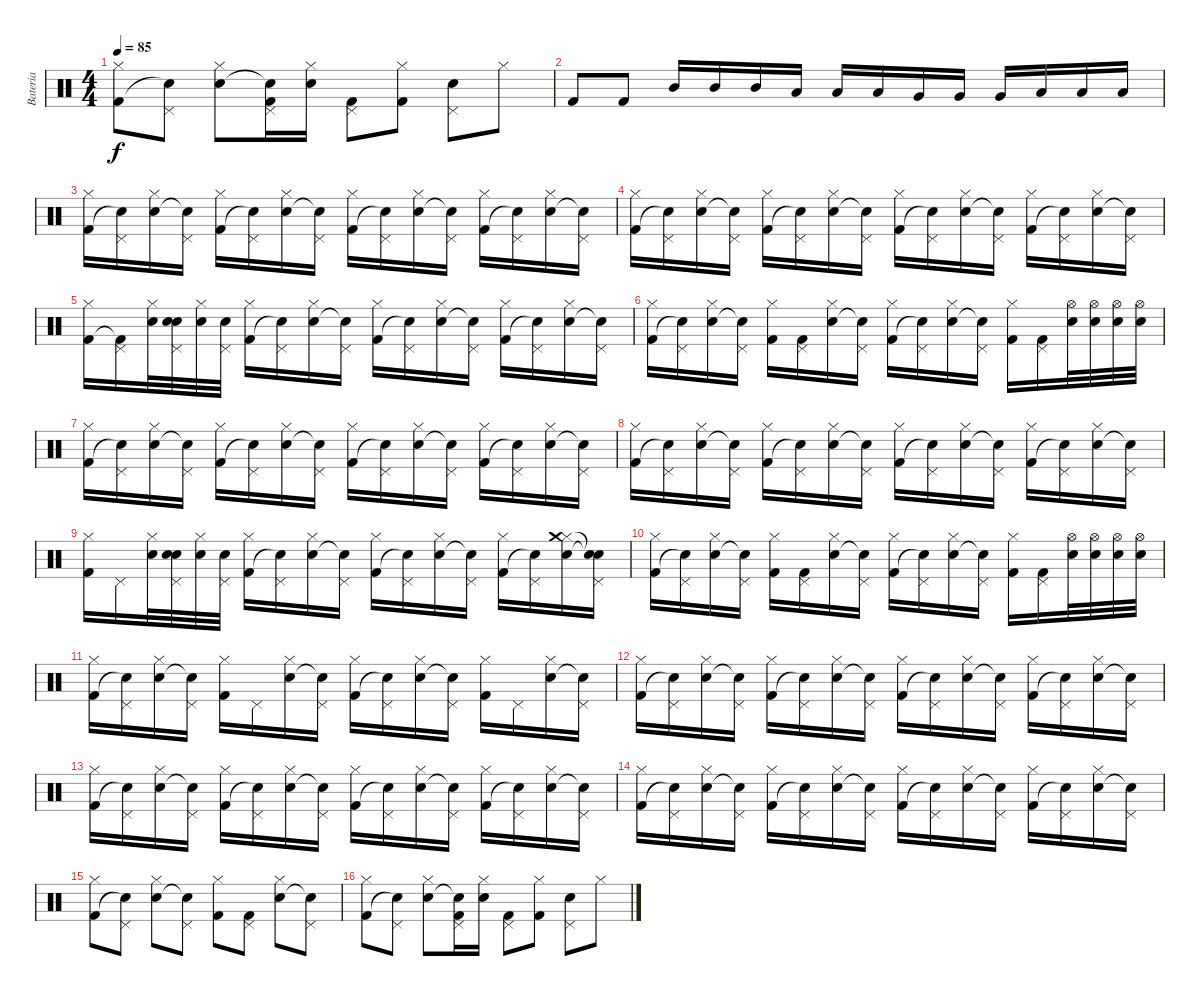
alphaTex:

\track ("Bateria" "Bateria") {instrument percussion}
\staff {score}
\articulation defaults
\ts (4 4)
\tempo 85
\clef neutral
\ks c
("Hi-Hat (closed)" "Kick (hit) 2").8{dy f} ("Pedal Hi-Hat (hit)" "Snare (hit)"{t}).8 ("Hi-Hat (closed)" "Electric Snare (hit)").8 ("Pedal Hi-Hat (hit)" "Snare (hit)"{t} "Kick (hit) 2").16 ("Hi-Hat (closed)" "Electric Snare (hit)").16 ("Pedal Hi-Hat (hit)" "Kick (hit) 2").8 ("Hi-Hat (closed)" "Kick (hit) 2").8 ("Pedal Hi-Hat (hit)" "Electric Snare (hit)").8 "Hi-Hat (closed)".8 |
"Kick (hit) 2".8 "Kick (hit) 2".8 "Mid Tom (hit)".16 "Mid Tom (hit)".16 "Mid Tom (hit)".16 "Low Tom (hit)".16 "Low Tom (hit)".16 "Low Tom (hit)".16 "Very Low Tom (hit)".16 "Very Low Tom (hit)".16 "Very Low Tom (hit)".16 "Low Floor Tom (hit)".16 "Low Floor Tom (hit)".16 "Low Floor Tom (hit)".16 |
("Hi-Hat (closed)" "Kick (hit) 2").16 ("Pedal Hi-Hat (hit)" "Snare (hit)"{t}).16 ("Hi-Hat (closed)" "Electric Snare (hit)").16 ("Pedal Hi-Hat (hit)" "Snare (hit)"{t}).16 ("Hi-Hat (closed)" "Kick (hit) 2").16 ("Pedal Hi-Hat (hit)" "Snare (hit)"{t}).16 ("Hi-Hat (closed)" "Electric Snare (hit)").16 ("Pedal Hi-Hat (hit)" "Snare (hit)"{t}).16 ("Hi-Hat (closed)" "Kick (hit) 2").16 ("Pedal Hi-Hat (hit)" "Snare (hit)"{t}).16 ("Hi-Hat (closed)" "Electric Snare (hit)").16 ("Pedal Hi-Hat (hit)" "Snare (hit)"{t}).16 ("Hi-Hat (closed)" "Kick (hit) 2").16 ("Pedal Hi-Hat (hit)" "Snare (hit)"{t}).16 ("Hi-Hat (closed)" "Electric Snare (hit)").16 ("Pedal Hi-Hat (hit)" "Snare (hit)"{t}).16 |
("Hi-Hat (closed)" "Kick (hit) 2").16 ("Pedal Hi-Hat (hit)" "Snare (hit)"{t}).16 ("Hi-Hat (closed)" "Electric Snare (hit)").16 ("Pedal Hi-Hat (hit)" "Snare (hit)"{t}).16 ("Hi-Hat (closed)" "Kick (hit) 2").16 ("Pedal Hi-Hat (hit)" "Snare (hit)"{t}).16 ("Hi-Hat (closed)" "Electric Snare (hit)").16 ("Pedal Hi-Hat (hit)" "Snare (hit)"{t}).16 ("Hi-Hat (closed)" "Kick (hit) 2").16 ("Pedal Hi-Hat (hit)" "Snare (hit)"{t}).16 ("Hi-Hat (closed)" "Electric Snare (hit)").16 ("Pedal Hi-Hat (hit)" "Snare (hit)"{t}).16 ("Hi-Hat (closed)" "Kick (hit) 2").16 ("Pedal Hi-Hat (hit)" "Snare (hit)"{t}).16 ("Hi-Hat (closed)" "Electric Snare (hit)").16 ("Pedal Hi-Hat (hit)" "Snare (hit)"{t}).16 |
("Hi-Hat (closed)" "Kick (hit) 2").16 ("Pedal Hi-Hat (hit)" "Kick (hit) 2"{t}).16 ("Hi-Hat (closed)" "Electric Snare (hit)").32 ("Pedal Hi-Hat (hit)" "Electric Snare (hit)" "Snare (hit)").32 ("Hi-Hat (closed)" "Electric Snare (hit)").32 ("Pedal Hi-Hat (hit)" "Electric Snare (hit)").32 ("Hi-Hat (closed)" "Kick (hit) 2").16 ("Pedal Hi-Hat (hit)" "Snare (hit)"{t}).16 ("Hi-Hat (closed)" "Electric Snare (hit)").16 ("Pedal Hi-Hat (hit)" "Snare (hit)"{t}).16 ("Hi-Hat (closed)" "Kick (hit) 2").16 ("Pedal Hi-Hat (hit)" "Snare (hit)"{t}).16 ("Hi-Hat (closed)" "Electric Snare (hit)").16 ("Pedal Hi-Hat (hit)" "Snare (hit)"{t}).16 ("Hi-Hat (closed)" "Kick (hit) 2").16 ("Pedal Hi-Hat (hit)" "Snare (hit)"{t}).16 ("Hi-Hat (closed)" "Electric Snare (hit)").16 ("Pedal Hi-Hat (hit)" "Snare (hit)"{t}).16 |
("Hi-Hat (closed)" "Kick (hit) 2").16 ("Pedal Hi-Hat (hit)" "Snare (hit)"{t}).16 ("Hi-Hat (closed)" "Electric Snare (hit)").16 ("Pedal Hi-Hat (hit)" "Snare (hit)"{t}).16 ("Hi-Hat (closed)" "Kick (hit) 2").16 ("Pedal Hi-Hat (hit)" "Kick (hit) 2").16 ("Hi-Hat (closed)" "Electric Snare (hit)").16 ("Pedal Hi-Hat (hit)" "Snare (hit)"{t}).16 ("Hi-Hat (closed)" "Kick (hit) 2").16 ("Pedal Hi-Hat (hit)" "Snare (hit)"{t}).16 ("Hi-Hat (closed)" "Electric Snare (hit)").16 ("Pedal Hi-Hat (hit)" "Snare (hit)"{t}).16 ("Hi-Hat (closed)" "Kick (hit) 2").16 ("Pedal Hi-Hat (hit)" "Kick (hit) 2").16 ("Hi-Hat (open)" "Electric Snare (hit)").32 ("Hi-Hat (open)" "Electric Snare (hit)").32 ("Hi-Hat (open)" "Electric Snare (hit)").32 ("Hi-Hat (open)" "Electric Snare (hit)").32 |
("Hi-Hat (closed)" "Kick (hit) 2").16 ("Pedal Hi-Hat (hit)" "Snare (hit)"{t}).16 ("Hi-Hat (closed)" "Electric Snare (hit)").16 ("Pedal Hi-Hat (hit)" "Snare (hit)"{t}).16 ("Hi-Hat (closed)" "Kick (hit) 2").16 ("Pedal Hi-Hat (hit)" "Snare (hit)"{t}).16 ("Hi-Hat (closed)" "Electric Snare (hit)").16 ("Pedal Hi-Hat (hit)" "Snare (hit)"{t}).16 ("Hi-Hat (closed)" "Kick (hit) 2").16 ("Pedal Hi-Hat (hit)" "Snare (hit)"{t}).16 ("Hi-Hat (closed)" "Electric Snare (hit)").16 ("Pedal Hi-Hat (hit)" "Snare (hit)"{t}).16 ("Hi-Hat (closed)" "Kick (hit) 2").16 ("Pedal Hi-Hat (hit)" "Snare (hit)"{t}).16 ("Hi-Hat (closed)" "Electric Snare (hit)").16 ("Pedal Hi-Hat (hit)" "Snare (hit)"{t}).16 |
("Hi-Hat (closed)" "Kick (hit) 2").16 ("Pedal Hi-Hat (hit)" "Snare (hit)"{t}).16 ("Hi-Hat (closed)" "Electric Snare (hit)").16 ("Pedal Hi-Hat (hit)" "Snare (hit)"{t}).16 ("Hi-Hat (closed)" "Kick (hit) 2").16 ("Pedal Hi-Hat (hit)" "Snare (hit)"{t}).16 ("Hi-Hat (closed)" "Electric Snare (hit)").16 ("Pedal Hi-Hat (hit)" "Snare (hit)"{t}).16 ("Hi-Hat (closed)" "Kick (hit) 2").16 ("Pedal Hi-Hat (hit)" "Snare (hit)"{t}).16 ("Hi-Hat (closed)" "Electric Snare (hit)").16 ("Pedal Hi-Hat (hit)" "Snare (hit)"{t}).16 ("Hi-Hat (closed)" "Kick (hit) 2").16 ("Pedal Hi-Hat (hit)" "Snare (hit)"{t}).16 ("Hi-Hat (closed)" "Electric Snare (hit)").16 ("Pedal Hi-Hat (hit)" "Snare (hit)"{t}).16 |
("Hi-Hat (closed)" "Kick (hit) 2").16 "Pedal Hi-Hat (hit)".16 ("Hi-Hat (closed)" "Electric Snare (hit)").32 ("Pedal Hi-Hat (hit)" "Electric Snare (hit)" "Snare (hit)").32 ("Hi-Hat (closed)" "Electric Snare (hit)").32 ("Pedal Hi-Hat (hit)" "Electric Snare (hit)").32 ("Hi-Hat (closed)" "Kick (hit) 2").16 ("Pedal Hi-Hat (hit)" "Snare (hit)"{t}).16 ("Hi-Hat (closed)" "Electric Snare (hit)").16 ("Pedal Hi-Hat (hit)" "Snare (hit)"{t}).16 ("Hi-Hat (closed)" "Kick (hit) 2").16 ("Pedal Hi-Hat (hit)" "Snare (hit)"{t}).16 ("Hi-Hat (closed)" "Electric Snare (hit)").16 ("Pedal Hi-Hat (hit)" "Snare (hit)"{t}).16 ("Hi-Hat (closed)" "Kick (hit) 2").16 ("Pedal Hi-Hat (hit)" "Snare (hit)"{t}).16 ("Hi-Hat (closed)" "Crash medium (hit)" "Electric Snare (hit)").16 ("Pedal Hi-Hat (hit)" "Snare (hit)"{t} "Snare (hit)"{t}).16 |
("Hi-Hat (closed)" "Kick (hit) 2").16 ("Pedal Hi-Hat (hit)" "Snare (hit)"{t}).16 ("Hi-Hat (closed)" "Electric Snare (hit)").16 ("Pedal Hi-Hat (hit)" "Snare (hit)"{t}).16 ("Hi-Hat (closed)" "Kick (hit) 2").16 ("Pedal Hi-Hat (hit)" "Kick (hit) 2").16 ("Hi-Hat (closed)" "Electric Snare (hit)").16 ("Pedal Hi-Hat (hit)" "Snare (hit)"{t}).16 ("Hi-Hat (closed)" "Kick (hit) 2").16 ("Pedal Hi-Hat (hit)" "Snare (hit)"{t}).16 ("Hi-Hat (closed)" "Electric Snare (hit)").16 ("Pedal Hi-Hat (hit)" "Snare (hit)"{t}).16 ("Hi-Hat (closed)" "Kick (hit) 2").16 ("Pedal Hi-Hat (hit)" "Kick (hit) 2").16 ("Hi-Hat (open)" "Electric Snare (hit)").32 ("Hi-Hat (open)" "Electric Snare (hit)").32 ("Hi-Hat (open)" "Electric Snare (hit)").32 ("Hi-Hat (open)" "Electric Snare (hit)").32 |
("Hi-Hat (closed)" "Kick (hit) 2").16 ("Pedal Hi-Hat (hit)" "Snare (hit)"{t}).16 ("Hi-Hat (closed)" "Electric Snare (hit)").16 ("Pedal Hi-Hat (hit)" "Snare (hit)"{t}).16 ("Hi-Hat (closed)" "Kick (hit) 2").16 "Pedal Hi-Hat (hit)".16 ("Hi-Hat (closed)" "Electric Snare (hit)").16 ("Pedal Hi-Hat (hit)" "Snare (hit)"{t}).16 ("Hi-Hat (closed)" "Kick (hit) 2").16 ("Pedal Hi-Hat (hit)" "Snare (hit)"{t}).16 ("Hi-Hat (closed)" "Electric Snare (hit)").16 ("Pedal Hi-Hat (hit)" "Snare (hit)"{t}).16 ("Hi-Hat (closed)" "Kick (hit) 2").16 "Pedal Hi-Hat (hit)".16 ("Hi-Hat (closed)" "Electric Snare (hit)").16 ("Pedal Hi-Hat (hit)" "Snare (hit)"{t}).16 |
("Hi-Hat (closed)" "Kick (hit) 2").16 ("Pedal Hi-Hat (hit)" "Snare (hit)"{t}).16 ("Hi-Hat (closed)" "Electric Snare (hit)").16 ("Pedal Hi-Hat (hit)" "Snare (hit)"{t}).16 ("Hi-Hat (closed)" "Kick (hit) 2").16 ("Pedal Hi-Hat (hit)" "Snare (hit)"{t}).16 ("Hi-Hat (closed)" "Electric Snare (hit)").16 ("Pedal Hi-Hat (hit)" "Snare (hit)"{t}).16 ("Hi-Hat (closed)" "Kick (hit) 2").16 ("Pedal Hi-Hat (hit)" "Snare (hit)"{t}).16 ("Hi-Hat (closed)" "Electric Snare (hit)").16 ("Pedal Hi-Hat (hit)" "Snare (hit)"{t}).16 ("Hi-Hat (closed)" "Kick (hit) 2").16 ("Pedal Hi-Hat (hit)" "Snare (hit)"{t}).16 ("Hi-Hat (closed)" "Electric Snare (hit)").16 ("Pedal Hi-Hat (hit)" "Snare (hit)"{t}).16 |
("Hi-Hat (closed)" "Kick (hit) 2").16 ("Pedal Hi-Hat (hit)" "Snare (hit)"{t}).16 ("Hi-Hat (closed)" "Electric Snare (hit)").16 ("Pedal Hi-Hat (hit)" "Snare (hit)"{t}).16 ("Hi-Hat (closed)" "Kick (hit) 2").16 ("Pedal Hi-Hat (hit)" "Snare (hit)"{t}).16 ("Hi-Hat (closed)" "Electric Snare (hit)").16 ("Pedal Hi-Hat (hit)" "Snare (hit)"{t}).16 ("Hi-Hat (closed)" "Kick (hit) 2").16 ("Pedal Hi-Hat (hit)" "Snare (hit)"{t}).16 ("Hi-Hat (closed)" "Electric Snare (hit)").16 ("Pedal Hi-Hat (hit)" "Snare (hit)"{t}).16 ("Hi-Hat (closed)" "Kick (hit) 2").16 ("Pedal Hi-Hat (hit)" "Snare (hit)"{t}).16 ("Hi-Hat (closed)" "Electric Snare (hit)").16 ("Pedal Hi-Hat (hit)" "Snare (hit)"{t}).16 |
("Hi-Hat (closed)" "Kick (hit) 2").16 ("Pedal Hi-Hat (hit)" "Snare (hit)"{t}).16 ("Hi-Hat (closed)" "Electric Snare (hit)").16 ("Pedal Hi-Hat (hit)" "Snare (hit)"{t}).16 ("Hi-Hat (closed)" "Kick (hit) 2").16 ("Pedal Hi-Hat (hit)" "Snare (hit)"{t}).16 ("Hi-Hat (closed)" "Electric Snare (hit)").16 ("Pedal Hi-Hat (hit)" "Snare (hit)"{t}).16 ("Hi-Hat (closed)" "Kick (hit) 2").16 ("Pedal Hi-Hat (hit)" "Snare (hit)"{t}).16 ("Hi-Hat (closed)" "Electric Snare (hit)").16 ("Pedal Hi-Hat (hit)" "Snare (hit)"{t}).16 ("Hi-Hat (closed)" "Kick (hit) 2").16 ("Pedal Hi-Hat (hit)" "Snare (hit)"{t}).16 ("Hi-Hat (closed)" "Electric Snare (hit)").16 ("Pedal Hi-Hat (hit)" "Snare (hit)"{t}).16 |
("Hi-Hat (closed)" "Kick (hit) 2").8 ("Pedal Hi-Hat (hit)" "Snare (hit)"{t}).8 ("Hi-Hat (closed)" "Electric Snare (hit)").8 ("Pedal Hi-Hat (hit)" "Snare (hit)"{t}).8 ("Hi-Hat (closed)" "Kick (hit) 2").8 ("Pedal Hi-Hat (hit)" "Kick (hit) 2").8 ("Hi-Hat (closed)" "Electric Snare (hit)").8 ("Pedal Hi-Hat (hit)" "Snare (hit)"{t}).8 |
("Hi-Hat (closed)" "Kick (hit) 2").8 ("Pedal Hi-Hat (hit)" "Snare (hit)"{t}).8 ("Hi-Hat (closed)" "Electric Snare (hit)").8 ("Pedal Hi-Hat (hit)" "Snare (hit)"{t} "Kick (hit) 2").16 ("Hi-Hat (closed)" "Electric Snare (hit)").16 ("Pedal Hi-Hat (hit)" "Kick (hit) 2").8 ("Hi-Hat (closed)" "Kick (hit) 2").8 ("Pedal Hi-Hat (hit)" "Electric Snare (hit)").8 "Hi-Hat (closed)".8
